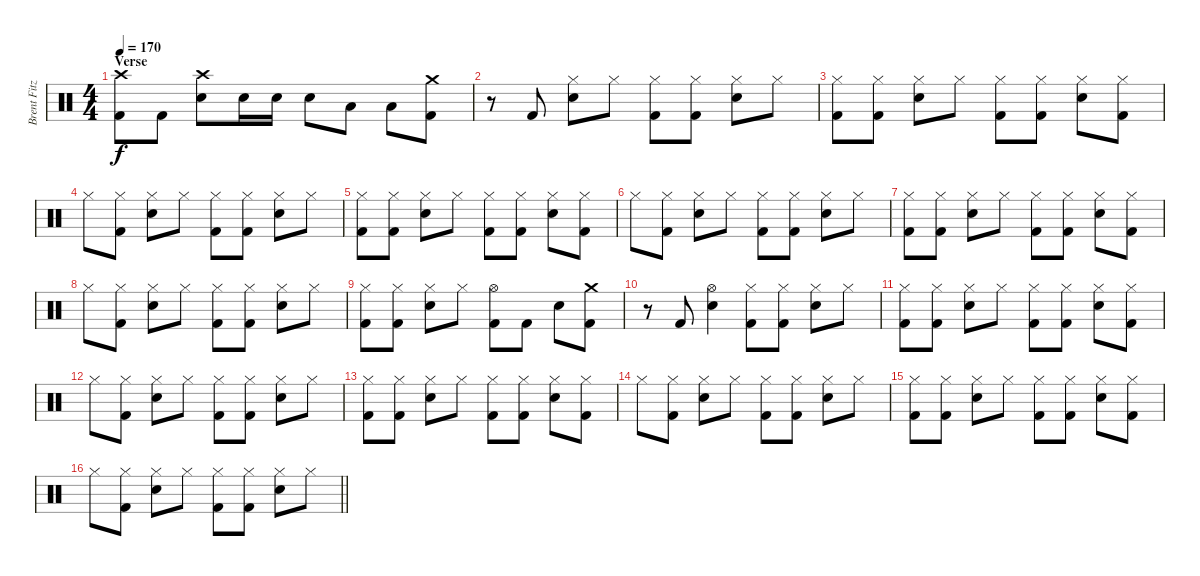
\track ("Brent Fitz" "Brent Fitz") {instrument percussion}
\staff {score}
\articulation defaults
\ts (4 4)
\section ("" "Verse")
\tempo 170
\clef neutral
\ks c
("Crash high (hit)" "Kick (hit) 2").8{dy f} "Kick (hit) 2".8 ("Crash high (hit)" "Electric Snare (hit)").8 "Electric Snare (hit)".16 "Electric Snare (hit)".16 "Electric Snare (hit)".8 "Low Tom (hit)".8 "Low Tom (hit)".8 ("Crash medium (hit)" "Kick (hit) 2").8 |
r.8 "Kick (hit) 2".8 ("Hi-Hat (closed)" "Electric Snare (hit)").8 "Hi-Hat (closed)".8 ("Hi-Hat (closed)" "Kick (hit) 2").8 ("Hi-Hat (closed)" "Kick (hit) 2").8 ("Hi-Hat (closed)" "Electric Snare (hit)").8 "Hi-Hat (closed)".8 |
("Hi-Hat (closed)" "Kick (hit) 2").8 ("Hi-Hat (closed)" "Kick (hit) 2").8 ("Hi-Hat (closed)" "Electric Snare (hit)").8 "Hi-Hat (closed)".8 ("Hi-Hat (closed)" "Kick (hit) 2").8 ("Hi-Hat (closed)" "Kick (hit) 2").8 ("Hi-Hat (closed)" "Electric Snare (hit)").8 ("Hi-Hat (closed)" "Kick (hit) 2").8 |
"Hi-Hat (closed)".8 ("Hi-Hat (closed)" "Kick (hit) 2").8 ("Hi-Hat (closed)" "Electric Snare (hit)").8 "Hi-Hat (closed)".8 ("Hi-Hat (closed)" "Kick (hit) 2").8 ("Hi-Hat (closed)" "Kick (hit) 2").8 ("Hi-Hat (closed)" "Electric Snare (hit)").8 "Hi-Hat (closed)".8 |
("Hi-Hat (closed)" "Kick (hit) 2").8 ("Hi-Hat (closed)" "Kick (hit) 2").8 ("Hi-Hat (closed)" "Electric Snare (hit)").8 "Hi-Hat (closed)".8 ("Hi-Hat (closed)" "Kick (hit) 2").8 ("Hi-Hat (closed)" "Kick (hit) 2").8 ("Hi-Hat (closed)" "Electric Snare (hit)").8 ("Hi-Hat (closed)" "Kick (hit) 2").8 |
"Hi-Hat (closed)".8 ("Hi-Hat (closed)" "Kick (hit) 2").8 ("Hi-Hat (closed)" "Electric Snare (hit)").8 "Hi-Hat (closed)".8 ("Hi-Hat (closed)" "Kick (hit) 2").8 ("Hi-Hat (closed)" "Kick (hit) 2").8 ("Hi-Hat (closed)" "Electric Snare (hit)").8 "Hi-Hat (closed)".8 |
("Hi-Hat (closed)" "Kick (hit) 2").8 ("Hi-Hat (closed)" "Kick (hit) 2").8 ("Hi-Hat (closed)" "Electric Snare (hit)").8 "Hi-Hat (closed)".8 ("Hi-Hat (closed)" "Kick (hit) 2").8 ("Hi-Hat (closed)" "Kick (hit) 2").8 ("Hi-Hat (closed)" "Electric Snare (hit)").8 ("Hi-Hat (closed)" "Kick (hit) 2").8 |
"Hi-Hat (closed)".8 ("Hi-Hat (closed)" "Kick (hit) 2").8 ("Hi-Hat (closed)" "Electric Snare (hit)").8 "Hi-Hat (closed)".8 ("Hi-Hat (closed)" "Kick (hit) 2").8 ("Hi-Hat (closed)" "Kick (hit) 2").8 ("Hi-Hat (closed)" "Electric Snare (hit)").8 "Hi-Hat (closed)".8 |
("Hi-Hat (closed)" "Kick (hit) 2").8 ("Hi-Hat (closed)" "Kick (hit) 2").8 ("Hi-Hat (closed)" "Electric Snare (hit)").8 "Hi-Hat (closed)".8 ("Hi-Hat (open)" "Kick (hit) 2").8 "Kick (hit) 2".8 "Electric Snare (hit)".8 ("Crash medium (hit)" "Kick (hit) 2").8 |
r.8 "Kick (hit) 2".8 ("Hi-Hat (open)" "Electric Snare (hit)").4 ("Hi-Hat (closed)" "Kick (hit) 2").8 ("Hi-Hat (closed)" "Kick (hit) 2").8 ("Hi-Hat (closed)" "Electric Snare (hit)").8 "Hi-Hat (closed)".8 |
("Hi-Hat (closed)" "Kick (hit) 2").8 ("Hi-Hat (closed)" "Kick (hit) 2").8 ("Hi-Hat (closed)" "Electric Snare (hit)").8 "Hi-Hat (closed)".8 ("Hi-Hat (closed)" "Kick (hit) 2").8 ("Hi-Hat (closed)" "Kick (hit) 2").8 ("Hi-Hat (closed)" "Electric Snare (hit)").8 ("Hi-Hat (closed)" "Kick (hit) 2").8 |
"Hi-Hat (closed)".8 ("Hi-Hat (closed)" "Kick (hit) 2").8 ("Hi-Hat (closed)" "Electric Snare (hit)").8 "Hi-Hat (closed)".8 ("Hi-Hat (closed)" "Kick (hit) 2").8 ("Hi-Hat (closed)" "Kick (hit) 2").8 ("Hi-Hat (closed)" "Electric Snare (hit)").8 "Hi-Hat (closed)".8 |
("Hi-Hat (closed)" "Kick (hit) 2").8 ("Hi-Hat (closed)" "Kick (hit) 2").8 ("Hi-Hat (closed)" "Electric Snare (hit)").8 "Hi-Hat (closed)".8 ("Hi-Hat (closed)" "Kick (hit) 2").8 ("Hi-Hat (closed)" "Kick (hit) 2").8 ("Hi-Hat (closed)" "Electric Snare (hit)").8 ("Hi-Hat (closed)" "Kick (hit) 2").8 |
"Hi-Hat (closed)".8 ("Hi-Hat (closed)" "Kick (hit) 2").8 ("Hi-Hat (closed)" "Electric Snare (hit)").8 "Hi-Hat (closed)".8 ("Hi-Hat (closed)" "Kick (hit) 2").8 ("Hi-Hat (closed)" "Kick (hit) 2").8 ("Hi-Hat (closed)" "Electric Snare (hit)").8 "Hi-Hat (closed)".8 |
("Hi-Hat (closed)" "Kick (hit) 2").8 ("Hi-Hat (closed)" "Kick (hit) 2").8 ("Hi-Hat (closed)" "Electric Snare (hit)").8 "Hi-Hat (closed)".8 ("Hi-Hat (closed)" "Kick (hit) 2").8 ("Hi-Hat (closed)" "Kick (hit) 2").8 ("Hi-Hat (closed)" "Electric Snare (hit)").8 ("Hi-Hat (closed)" "Kick (hit) 2").8 |
\barLineRight lightlight "Hi-Hat (closed)".8
("Hi-Hat (closed)" "Kick (hit) 2").8 ("Hi-Hat (closed)" "Electric Snare (hit)").8 "Hi-Hat (closed)".8 ("Hi-Hat (closed)" "Kick (hit) 2").8 ("Hi-Hat (closed)" "Kick (hit) 2").8 ("Hi-Hat (closed)" "Electric Snare (hit)").8 "Hi-Hat (closed)".8
